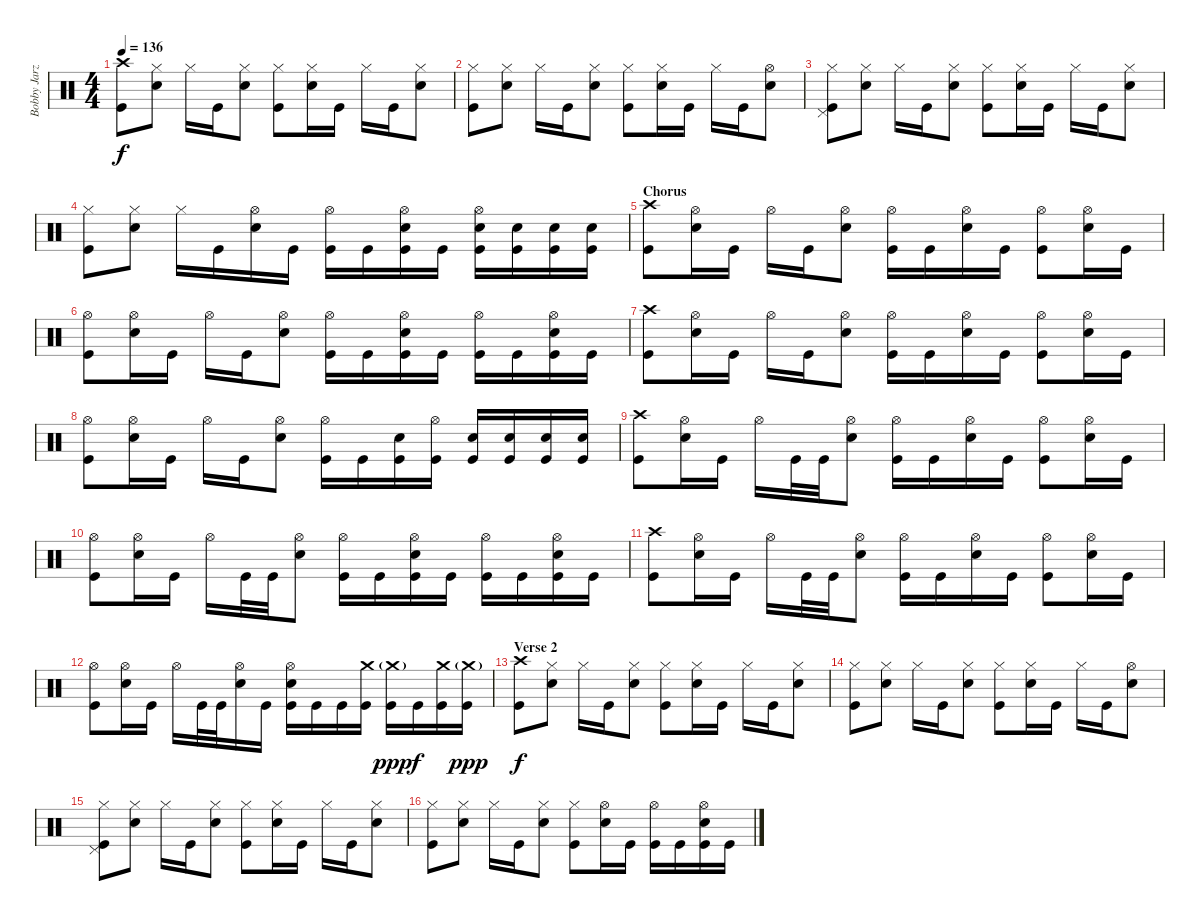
\track ("Bobby Jarzombek" "Bobby Jarz") {instrument percussion}
\staff {score}
\articulation defaults
\ts (4 4)
\tempo 136
\clef neutral
\ks c
("Crash high (hit)" "Kick (hit)").8{dy f} ("Hi-Hat (closed)" "Electric Snare (hit)").8 "Hi-Hat (closed)".16 "Kick (hit)".16 ("Hi-Hat (closed)" "Electric Snare (hit)").8 ("Hi-Hat (closed)" "Kick (hit)").8 ("Hi-Hat (closed)" "Electric Snare (hit)").16 "Kick (hit)".16 "Hi-Hat (closed)".16 "Kick (hit)".16 ("Hi-Hat (closed)" "Electric Snare (hit)").8 |
("Hi-Hat (closed)" "Kick (hit)").8 ("Hi-Hat (closed)" "Electric Snare (hit)").8 "Hi-Hat (closed)".16 "Kick (hit)".16 ("Hi-Hat (closed)" "Electric Snare (hit)").8 ("Hi-Hat (closed)" "Kick (hit)").8 ("Hi-Hat (closed)" "Electric Snare (hit)").16 "Kick (hit)".16 "Hi-Hat (closed)".16 "Kick (hit)".16 ("Hi-Hat (open)" "Electric Snare (hit)").8 |
("Hi-Hat (closed)" "Pedal Hi-Hat (hit)" "Kick (hit)").8 ("Hi-Hat (closed)" "Electric Snare (hit)").8 "Hi-Hat (closed)".16 "Kick (hit)".16 ("Hi-Hat (closed)" "Electric Snare (hit)").8 ("Hi-Hat (closed)" "Kick (hit)").8 ("Hi-Hat (closed)" "Electric Snare (hit)").16 "Kick (hit)".16 "Hi-Hat (closed)".16 "Kick (hit)".16 ("Hi-Hat (closed)" "Electric Snare (hit)").8 |
("Hi-Hat (closed)" "Kick (hit)").8 ("Hi-Hat (closed)" "Electric Snare (hit)").8 "Hi-Hat (closed)".16 "Kick (hit)".16 ("Hi-Hat (open)" "Electric Snare (hit)").16 "Kick (hit)".16 ("Hi-Hat (open)" "Kick (hit)").16 "Kick (hit)".16 ("Hi-Hat (open)" "Electric Snare (hit)" "Kick (hit)").16 "Kick (hit)".16 ("Hi-Hat (open)" "Electric Snare (hit)" "Kick (hit)").16 ("Electric Snare (hit)" "Kick (hit)").16 ("Electric Snare (hit)" "Kick (hit)").16 ("Electric Snare (hit)" "Kick (hit)").16 |
\section ("" "Chorus")
("Crash high (hit)" "Kick (hit)").8 ("Hi-Hat (open)" "Electric Snare (hit)").16 "Kick (hit)".16 "Hi-Hat (open)".16 "Kick (hit)".16 ("Hi-Hat (open)" "Electric Snare (hit)").8 ("Hi-Hat (open)" "Kick (hit)").16 "Kick (hit)".16 ("Hi-Hat (open)" "Electric Snare (hit)").16 "Kick (hit)".16 ("Hi-Hat (open)" "Kick (hit)").8 ("Hi-Hat (open)" "Electric Snare (hit)").16 "Kick (hit)".16 |
("Hi-Hat (open)" "Kick (hit)").8 ("Hi-Hat (open)" "Electric Snare (hit)").16 "Kick (hit)".16 "Hi-Hat (open)".16 "Kick (hit)".16 ("Hi-Hat (open)" "Electric Snare (hit)").8 ("Hi-Hat (open)" "Kick (hit)").16 "Kick (hit)".16 ("Hi-Hat (open)" "Electric Snare (hit)" "Kick (hit)").16 "Kick (hit)".16 ("Hi-Hat (open)" "Kick (hit)").16 "Kick (hit)".16 ("Hi-Hat (open)" "Electric Snare (hit)" "Kick (hit)").16 "Kick (hit)".16 |
("Crash high (hit)" "Kick (hit)").8 ("Hi-Hat (open)" "Electric Snare (hit)").16 "Kick (hit)".16 "Hi-Hat (open)".16 "Kick (hit)".16 ("Hi-Hat (open)" "Electric Snare (hit)").8 ("Hi-Hat (open)" "Kick (hit)").16 "Kick (hit)".16 ("Hi-Hat (open)" "Electric Snare (hit)").16 "Kick (hit)".16 ("Hi-Hat (open)" "Kick (hit)").8 ("Hi-Hat (open)" "Electric Snare (hit)").16 "Kick (hit)".16 |
("Hi-Hat (open)" "Kick (hit)").8 ("Hi-Hat (open)" "Electric Snare (hit)").16 "Kick (hit)".16 "Hi-Hat (open)".16 "Kick (hit)".16 ("Hi-Hat (open)" "Electric Snare (hit)").8 ("Hi-Hat (open)" "Kick (hit)").16 "Kick (hit)".16 ("Electric Snare (hit)" "Kick (hit)").16 ("Hi-Hat (open)" "Kick (hit)").16 ("Electric Snare (hit)" "Kick (hit)").16 ("Electric Snare (hit)" "Kick (hit)").16 ("Electric Snare (hit)" "Kick (hit)").16 ("Electric Snare (hit)" "Kick (hit)").16 |
("Crash high (hit)" "Kick (hit)").8 ("Hi-Hat (open)" "Electric Snare (hit)").16 "Kick (hit)".16 "Hi-Hat (open)".16 "Kick (hit)".32 "Kick (hit)".32 ("Hi-Hat (open)" "Electric Snare (hit)").8 ("Hi-Hat (open)" "Kick (hit)").16 "Kick (hit)".16 ("Hi-Hat (open)" "Electric Snare (hit)").16 "Kick (hit)".16 ("Hi-Hat (open)" "Kick (hit)").8 ("Hi-Hat (open)" "Electric Snare (hit)").16 "Kick (hit)".16 |
("Hi-Hat (open)" "Kick (hit)").8 ("Hi-Hat (open)" "Electric Snare (hit)").16 "Kick (hit)".16 "Hi-Hat (open)".16 "Kick (hit)".32 "Kick (hit)".32 ("Hi-Hat (open)" "Electric Snare (hit)").8 ("Hi-Hat (open)" "Kick (hit)").16 "Kick (hit)".16 ("Hi-Hat (open)" "Electric Snare (hit)" "Kick (hit)").16 "Kick (hit)".16 ("Hi-Hat (open)" "Kick (hit)").16 "Kick (hit)".16 ("Hi-Hat (open)" "Electric Snare (hit)" "Kick (hit)").16 "Kick (hit)".16 |
("Crash high (hit)" "Kick (hit)").8 ("Hi-Hat (open)" "Electric Snare (hit)").16 "Kick (hit)".16 "Hi-Hat (open)".16 "Kick (hit)".32 "Kick (hit)".32 ("Hi-Hat (open)" "Electric Snare (hit)").8 ("Hi-Hat (open)" "Kick (hit)").16 "Kick (hit)".16 ("Hi-Hat (open)" "Electric Snare (hit)").16 "Kick (hit)".16 ("Hi-Hat (open)" "Kick (hit)").8 ("Hi-Hat (open)" "Electric Snare (hit)").16 "Kick (hit)".16 |
("Hi-Hat (open)" "Kick (hit)").8 ("Hi-Hat (open)" "Electric Snare (hit)").16 "Kick (hit)".16 "Hi-Hat (open)".16 "Kick (hit)".32 "Kick (hit)".32 ("Hi-Hat (open)" "Electric Snare (hit)").16 "Kick (hit)".16 ("Hi-Hat (open)" "Electric Snare (hit)" "Kick (hit)").16 "Kick (hit)".16 "Kick (hit)".16 ("Crash medium (hit)" "Kick (hit)").16 ("Crash medium (hit)"{g} "Kick (hit)").16{dy ppp} "Kick (hit)".16{dy f} ("Crash medium (hit)" "Kick (hit)").16 ("Crash medium (hit)"{g} "Kick (hit)").16{dy ppp} |
\section ("" "Verse 2")
("Crash high (hit)" "Kick (hit)").8{dy f} ("Hi-Hat (closed)" "Electric Snare (hit)").8 "Hi-Hat (closed)".16 "Kick (hit)".16 ("Hi-Hat (closed)" "Electric Snare (hit)").8 ("Hi-Hat (closed)" "Kick (hit)").8 ("Hi-Hat (closed)" "Electric Snare (hit)").16 "Kick (hit)".16 "Hi-Hat (closed)".16 "Kick (hit)".16 ("Hi-Hat (closed)" "Electric Snare (hit)").8 |
("Hi-Hat (closed)" "Kick (hit)").8 ("Hi-Hat (closed)" "Electric Snare (hit)").8 "Hi-Hat (closed)".16 "Kick (hit)".16 ("Hi-Hat (closed)" "Electric Snare (hit)").8 ("Hi-Hat (closed)" "Kick (hit)").8 ("Hi-Hat (closed)" "Electric Snare (hit)").16 "Kick (hit)".16 "Hi-Hat (closed)".16 "Kick (hit)".16 ("Hi-Hat (open)" "Electric Snare (hit)").8 |
("Hi-Hat (closed)" "Pedal Hi-Hat (hit)" "Kick (hit)").8 ("Hi-Hat (closed)" "Electric Snare (hit)").8 "Hi-Hat (closed)".16 "Kick (hit)".16 ("Hi-Hat (closed)" "Electric Snare (hit)").8 ("Hi-Hat (closed)" "Kick (hit)").8 ("Hi-Hat (closed)" "Electric Snare (hit)").16 "Kick (hit)".16 "Hi-Hat (closed)".16 "Kick (hit)".16 ("Hi-Hat (closed)" "Electric Snare (hit)").8 |
("Hi-Hat (closed)" "Kick (hit)").8 ("Hi-Hat (closed)" "Electric Snare (hit)").8 "Hi-Hat (closed)".16 "Kick (hit)".16 ("Hi-Hat (closed)" "Electric Snare (hit)").8 ("Hi-Hat (closed)" "Kick (hit)").8 ("Hi-Hat (open)" "Electric Snare (hit)").16 "Kick (hit)".16 ("Hi-Hat (open)" "Kick (hit)").16 "Kick (hit)".16 ("Hi-Hat (open)" "Electric Snare (hit)" "Kick (hit)").16 "Kick (hit)".16
